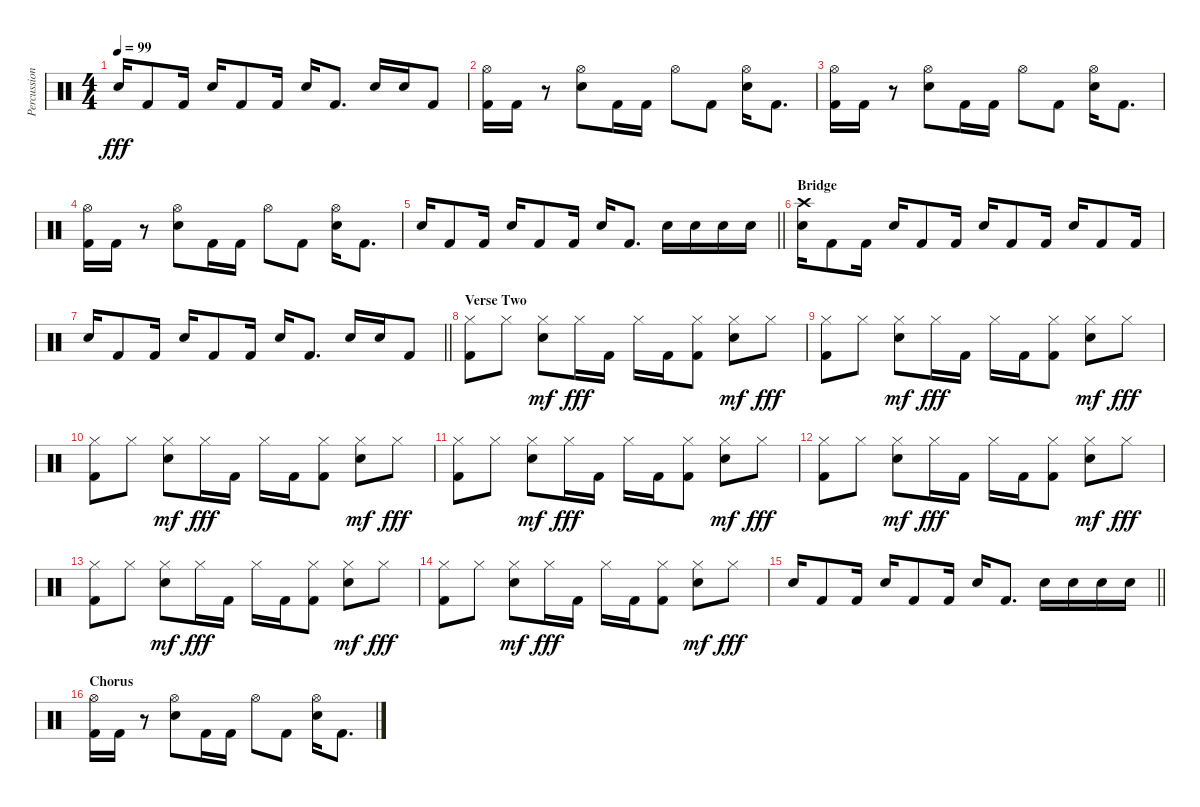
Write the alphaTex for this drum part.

\track ("Percussion" "Percussion") {instrument percussion}
\staff {score}
\articulation defaults
\ts (4 4)
\tempo 99
\clef neutral
\ks c "Snare (hit) 2".16{dy fff} "Kick (hit) 2".8 "Kick (hit) 2".16 "Snare (hit) 2".16 "Kick (hit) 2".8 "Kick (hit) 2".16 "Snare (hit) 2".16 "Kick (hit) 2".8{d} "Snare (hit) 2".16 "Snare (hit) 2".16 "Kick (hit) 2".8
|
("Kick (hit) 2" "Hi-Hat (open)").16 "Kick (hit) 2".16 r.8 ("Snare (hit) 2" "Hi-Hat (open)").8 "Kick (hit) 2".16 "Kick (hit) 2".16 "Hi-Hat (open)".8 "Kick (hit) 2".8 ("Snare (hit) 2" "Hi-Hat (open)").16 "Kick (hit) 2".8{d} |
("Kick (hit) 2" "Hi-Hat (open)").16 "Kick (hit) 2".16 r.8 ("Snare (hit) 2" "Hi-Hat (open)").8 "Kick (hit) 2".16 "Kick (hit) 2".16 "Hi-Hat (open)".8 "Kick (hit) 2".8 ("Snare (hit) 2" "Hi-Hat (open)").16 "Kick (hit) 2".8{d} |
("Kick (hit) 2" "Hi-Hat (open)").16 "Kick (hit) 2".16 r.8 ("Snare (hit) 2" "Hi-Hat (open)").8 "Kick (hit) 2".16 "Kick (hit) 2".16 "Hi-Hat (open)".8 "Kick (hit) 2".8 ("Snare (hit) 2" "Hi-Hat (open)").16 "Kick (hit) 2".8{d} |
\barLineRight lightlight "Snare (hit) 2".16 "Kick (hit) 2".8 "Kick (hit) 2".16 "Snare (hit) 2".16 "Kick (hit) 2".8 "Kick (hit) 2".16 "Snare (hit) 2".16 "Kick (hit) 2".8{d} "Snare (hit) 2".16 "Snare (hit) 2".16 "Snare (hit) 2".16 "Snare (hit) 2".16
|
\section ("" "Bridge")
("Crash high (hit)" "Snare (hit) 2").16 "Kick (hit) 2".8 "Kick (hit) 2".16 "Snare (hit) 2".16 "Kick (hit) 2".8 "Kick (hit) 2".16 "Snare (hit) 2".16 "Kick (hit) 2".8 "Kick (hit) 2".16 "Snare (hit) 2".16 "Kick (hit) 2".8 "Kick (hit) 2".16 |
\barLineRight lightlight "Snare (hit) 2".16 "Kick (hit) 2".8 "Kick (hit) 2".16 "Snare (hit) 2".16 "Kick (hit) 2".8 "Kick (hit) 2".16 "Snare (hit) 2".16 "Kick (hit) 2".8{d} "Snare (hit) 2".16 "Snare (hit) 2".16 "Kick (hit) 2".8
|
\section ("" "Verse Two")
("Hi-Hat (closed)" "Kick (hit) 2").8 "Hi-Hat (closed)".8 ("Hi-Hat (closed)" "Snare (hit) 2").8{dy mf} "Hi-Hat (closed)".16{dy fff} "Kick (hit) 2".16 "Hi-Hat (closed)".16 "Kick (hit) 2".16 ("Hi-Hat (closed)" "Kick (hit) 2").8 ("Hi-Hat (closed)" "Snare (hit) 2").8{dy mf} "Hi-Hat (closed)".8{dy fff} |
("Hi-Hat (closed)" "Kick (hit) 2").8 "Hi-Hat (closed)".8 ("Hi-Hat (closed)" "Snare (hit) 2").8{dy mf} "Hi-Hat (closed)".16{dy fff} "Kick (hit) 2".16 "Hi-Hat (closed)".16 "Kick (hit) 2".16 ("Hi-Hat (closed)" "Kick (hit) 2").8 ("Hi-Hat (closed)" "Snare (hit) 2").8{dy mf} "Hi-Hat (closed)".8{dy fff} |
("Hi-Hat (closed)" "Kick (hit) 2").8 "Hi-Hat (closed)".8 ("Hi-Hat (closed)" "Snare (hit) 2").8{dy mf} "Hi-Hat (closed)".16{dy fff} "Kick (hit) 2".16 "Hi-Hat (closed)".16 "Kick (hit) 2".16 ("Hi-Hat (closed)" "Kick (hit) 2").8 ("Hi-Hat (closed)" "Snare (hit) 2").8{dy mf} "Hi-Hat (closed)".8{dy fff} |
("Hi-Hat (closed)" "Kick (hit) 2").8 "Hi-Hat (closed)".8 ("Hi-Hat (closed)" "Snare (hit) 2").8{dy mf} "Hi-Hat (closed)".16{dy fff} "Kick (hit) 2".16 "Hi-Hat (closed)".16 "Kick (hit) 2".16 ("Hi-Hat (closed)" "Kick (hit) 2").8 ("Hi-Hat (closed)" "Snare (hit) 2").8{dy mf} "Hi-Hat (closed)".8{dy fff} |
("Hi-Hat (closed)" "Kick (hit) 2").8 "Hi-Hat (closed)".8 ("Hi-Hat (closed)" "Snare (hit) 2").8{dy mf} "Hi-Hat (closed)".16{dy fff} "Kick (hit) 2".16 "Hi-Hat (closed)".16 "Kick (hit) 2".16 ("Hi-Hat (closed)" "Kick (hit) 2").8 ("Hi-Hat (closed)" "Snare (hit) 2").8{dy mf} "Hi-Hat (closed)".8{dy fff} |
("Hi-Hat (closed)" "Kick (hit) 2").8 "Hi-Hat (closed)".8 ("Hi-Hat (closed)" "Snare (hit) 2").8{dy mf} "Hi-Hat (closed)".16{dy fff} "Kick (hit) 2".16 "Hi-Hat (closed)".16 "Kick (hit) 2".16 ("Hi-Hat (closed)" "Kick (hit) 2").8 ("Hi-Hat (closed)" "Snare (hit) 2").8{dy mf} "Hi-Hat (closed)".8{dy fff} |
("Hi-Hat (closed)" "Kick (hit) 2").8 "Hi-Hat (closed)".8 ("Hi-Hat (closed)" "Snare (hit) 2").8{dy mf} "Hi-Hat (closed)".16{dy fff} "Kick (hit) 2".16 "Hi-Hat (closed)".16 "Kick (hit) 2".16 ("Hi-Hat (closed)" "Kick (hit) 2").8 ("Hi-Hat (closed)" "Snare (hit) 2").8{dy mf} "Hi-Hat (closed)".8{dy fff} |
\barLineRight lightlight "Snare (hit) 2".16 "Kick (hit) 2".8 "Kick (hit) 2".16 "Snare (hit) 2".16 "Kick (hit) 2".8 "Kick (hit) 2".16 "Snare (hit) 2".16 "Kick (hit) 2".8{d} "Snare (hit) 2".16 "Snare (hit) 2".16 "Snare (hit) 2".16 "Snare (hit) 2".16
|
\section ("" "Chorus")
("Kick (hit) 2" "Hi-Hat (open)").16 "Kick (hit) 2".16 r.8 ("Snare (hit) 2" "Hi-Hat (open)").8 "Kick (hit) 2".16 "Kick (hit) 2".16 "Hi-Hat (open)".8 "Kick (hit) 2".8 ("Snare (hit) 2" "Hi-Hat (open)").16 "Kick (hit) 2".8{d}
